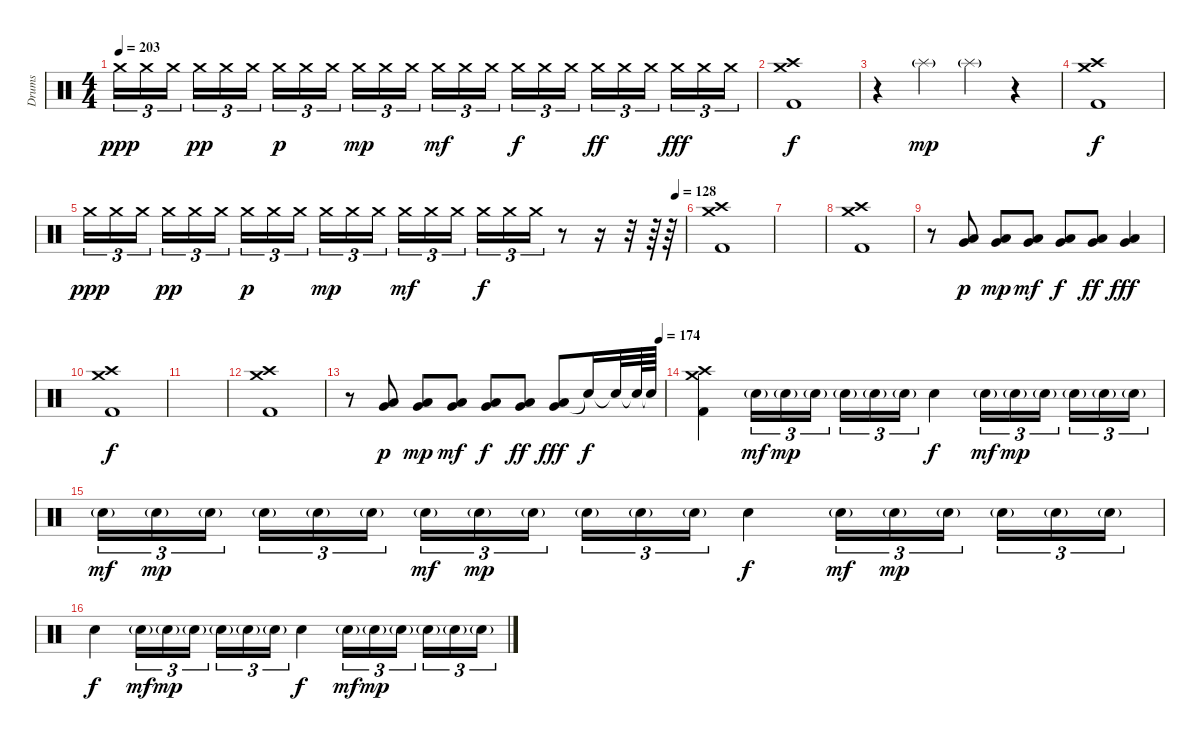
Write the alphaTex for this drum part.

\track ("Drums" "Drums") {instrument percussion}
\staff {score}
\articulation defaults
\ts (4 4)
\tempo 203
\clef neutral
\ks c "Crash medium (hit)".16{tu (3 2) dy ppp} "Crash medium (hit)".16{tu (3 2)} "Crash medium (hit)".16{tu (3 2)} "Crash medium (hit)".16{tu (3 2) dy pp} "Crash medium (hit)".16{tu (3 2)} "Crash medium (hit)".16{tu (3 2)} "Crash medium (hit)".16{tu (3 2) dy p} "Crash medium (hit)".16{tu (3 2)} "Crash medium (hit)".16{tu (3 2)} "Crash medium (hit)".16{tu (3 2) dy mp} "Crash medium (hit)".16{tu (3 2)} "Crash medium (hit)".16{tu (3 2)} "Crash medium (hit)".16{tu (3 2) dy mf} "Crash medium (hit)".16{tu (3 2)} "Crash medium (hit)".16{tu (3 2)} "Crash medium (hit)".16{tu (3 2) dy f} "Crash medium (hit)".16{tu (3 2)} "Crash medium (hit)".16{tu (3 2)} "Crash medium (hit)".16{tu (3 2) dy ff} "Crash medium (hit)".16{tu (3 2)} "Crash medium (hit)".16{tu (3 2)} "Crash medium (hit)".16{tu (3 2) dy fff} "Crash medium (hit)".16{tu (3 2)} "Crash medium (hit)".16{tu (3 2)}
|
("Crash medium (hit)" "Crash high (hit)" "Kick (hit) 2").1{dy f} |
r.4 "Splash (hit)"{g}.4{dy mp} "Splash (hit)"{g}.4 r.4 |
("Crash medium (hit)" "Crash high (hit)" "Kick (hit) 2").1{dy f} |
\tempo (128 0.984375)
"Crash medium (hit)".16{tu (3 2) dy ppp} "Crash medium (hit)".16{tu (3 2)} "Crash medium (hit)".16{tu (3 2)} "Crash medium (hit)".16{tu (3 2) dy pp} "Crash medium (hit)".16{tu (3 2)} "Crash medium (hit)".16{tu (3 2)} "Crash medium (hit)".16{tu (3 2) dy p} "Crash medium (hit)".16{tu (3 2)} "Crash medium (hit)".16{tu (3 2)} "Crash medium (hit)".16{tu (3 2) dy mp} "Crash medium (hit)".16{tu (3 2)} "Crash medium (hit)".16{tu (3 2)} "Crash medium (hit)".16{tu (3 2) dy mf} "Crash medium (hit)".16{tu (3 2)} "Crash medium (hit)".16{tu (3 2)} "Crash medium (hit)".16{tu (3 2) dy f} "Crash medium (hit)".16{tu (3 2)} "Crash medium (hit)".16{tu (3 2)} r.8 r.16 r.32 r.64 r.64 |
("Crash medium (hit)" "Crash high (hit)" "Kick (hit) 2").1 |
|
("Crash medium (hit)" "Crash high (hit)" "Kick (hit) 2").1 |
r.8 ("Very Low Tom (hit)" "Low Floor Tom (hit)").8{dy p} ("Very Low Tom (hit)" "Low Floor Tom (hit)").8{dy mp} ("Very Low Tom (hit)" "Low Floor Tom (hit)").8{dy mf} ("Very Low Tom (hit)" "Low Floor Tom (hit)").8{dy f} ("Very Low Tom (hit)" "Low Floor Tom (hit)").8{dy ff} ("Very Low Tom (hit)" "Low Floor Tom (hit)").4{dy fff} |
("Crash medium (hit)" "Crash high (hit)" "Kick (hit) 2").1{dy f} |
|
("Crash medium (hit)" "Crash high (hit)" "Kick (hit) 2").1 |
\tempo (174 0.984375)
r.8 ("Very Low Tom (hit)" "Low Floor Tom (hit)").8{dy p} ("Very Low Tom (hit)" "Low Floor Tom (hit)").8{dy mp} ("Very Low Tom (hit)" "Low Floor Tom (hit)").8{dy mf} ("Very Low Tom (hit)" "Low Floor Tom (hit)").8{dy f} ("Very Low Tom (hit)" "Low Floor Tom (hit)").8{dy ff} ("Very Low Tom (hit)" "Low Floor Tom (hit)").8{dy fff} "Snare (hit)"{t}.16{dy f} "Snare (hit)"{t}.32 "Snare (hit)"{t}.64 "Snare (hit)"{t}.64 |
("Crash medium (hit)" "Crash high (hit)" "Kick (hit) 2").4 "Electric Snare (hit)"{g}.16{tu (3 2) dy mf} "Electric Snare (hit)"{g}.16{tu (3 2) dy mp} "Electric Snare (hit)"{g}.16{tu (3 2)} "Electric Snare (hit)"{g}.16{tu (3 2)} "Electric Snare (hit)"{g}.16{tu (3 2)} "Electric Snare (hit)"{g}.16{tu (3 2)} "Electric Snare (hit)".4{dy f} "Electric Snare (hit)"{g}.16{tu (3 2) dy mf} "Electric Snare (hit)"{g}.16{tu (3 2) dy mp} "Electric Snare (hit)"{g}.16{tu (3 2)} "Electric Snare (hit)"{g}.16{tu (3 2)} "Electric Snare (hit)"{g}.16{tu (3 2)} "Electric Snare (hit)"{g}.16{tu (3 2)} |
"Electric Snare (hit)"{g}.16{tu (3 2) dy mf} "Electric Snare (hit)"{g}.16{tu (3 2) dy mp} "Electric Snare (hit)"{g}.16{tu (3 2)} "Electric Snare (hit)"{g}.16{tu (3 2)} "Electric Snare (hit)"{g}.16{tu (3 2)} "Electric Snare (hit)"{g}.16{tu (3 2)} "Electric Snare (hit)"{g}.16{tu (3 2) dy mf} "Electric Snare (hit)"{g}.16{tu (3 2) dy mp} "Electric Snare (hit)"{g}.16{tu (3 2)} "Electric Snare (hit)"{g}.16{tu (3 2)} "Electric Snare (hit)"{g}.16{tu (3 2)} "Electric Snare (hit)"{g}.16{tu (3 2)} "Electric Snare (hit)".4{dy f} "Electric Snare (hit)"{g}.16{tu (3 2) dy mf} "Electric Snare (hit)"{g}.16{tu (3 2) dy mp} "Electric Snare (hit)"{g}.16{tu (3 2)} "Electric Snare (hit)"{g}.16{tu (3 2)} "Electric Snare (hit)"{g}.16{tu (3 2)} "Electric Snare (hit)"{g}.16{tu (3 2)} |
"Electric Snare (hit)".4{dy f} "Electric Snare (hit)"{g}.16{tu (3 2) dy mf} "Electric Snare (hit)"{g}.16{tu (3 2) dy mp} "Electric Snare (hit)"{g}.16{tu (3 2)} "Electric Snare (hit)"{g}.16{tu (3 2)} "Electric Snare (hit)"{g}.16{tu (3 2)} "Electric Snare (hit)"{g}.16{tu (3 2)} "Electric Snare (hit)".4{dy f} "Electric Snare (hit)"{g}.16{tu (3 2) dy mf} "Electric Snare (hit)"{g}.16{tu (3 2) dy mp} "Electric Snare (hit)"{g}.16{tu (3 2)} "Electric Snare (hit)"{g}.16{tu (3 2)} "Electric Snare (hit)"{g}.16{tu (3 2)} "Electric Snare (hit)"{g}.16{tu (3 2)}
